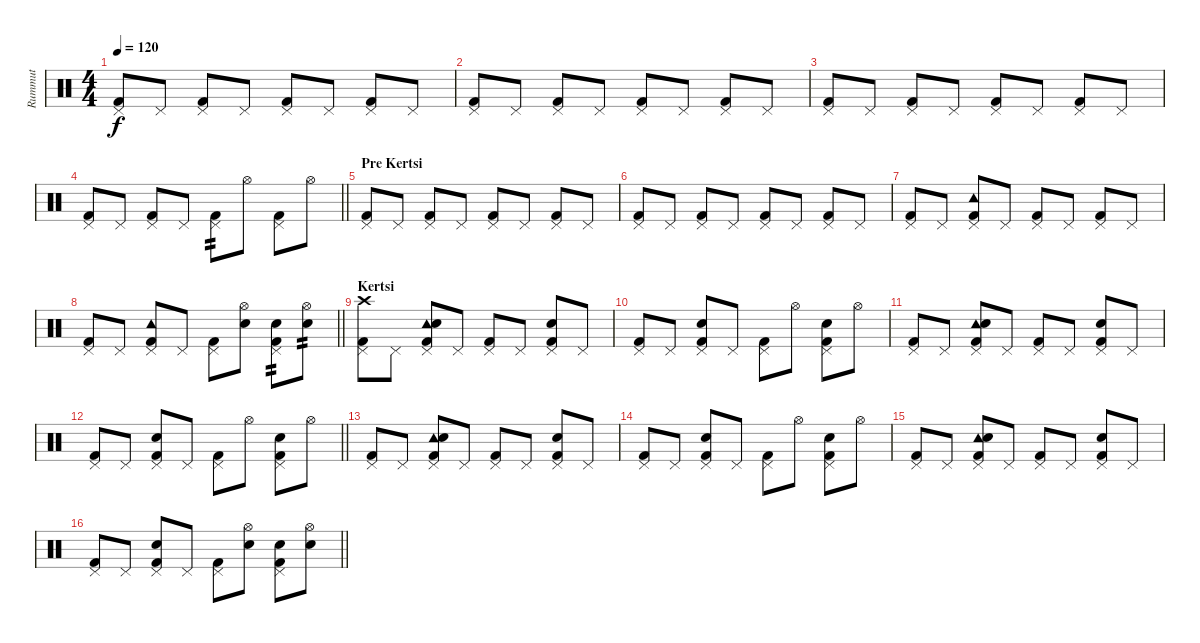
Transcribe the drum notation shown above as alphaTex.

\track ("Rummut" "Rummut") {instrument percussion}
\staff {score}
\articulation defaults
\ts (4 4)
\tempo 120
\clef neutral
\ks c
("Pedal Hi-Hat (hit)" "Kick (hit) 2").8{dy f} "Pedal Hi-Hat (hit)".8 ("Pedal Hi-Hat (hit)" "Kick (hit) 2").8 "Pedal Hi-Hat (hit)".8 ("Pedal Hi-Hat (hit)" "Kick (hit) 2").8 "Pedal Hi-Hat (hit)".8 ("Pedal Hi-Hat (hit)" "Kick (hit) 2").8 "Pedal Hi-Hat (hit)".8 |
("Pedal Hi-Hat (hit)" "Kick (hit) 2").8 "Pedal Hi-Hat (hit)".8 ("Pedal Hi-Hat (hit)" "Kick (hit) 2").8 "Pedal Hi-Hat (hit)".8 ("Pedal Hi-Hat (hit)" "Kick (hit) 2").8 "Pedal Hi-Hat (hit)".8 ("Pedal Hi-Hat (hit)" "Kick (hit) 2").8 "Pedal Hi-Hat (hit)".8 |
("Pedal Hi-Hat (hit)" "Kick (hit) 2").8 "Pedal Hi-Hat (hit)".8 ("Pedal Hi-Hat (hit)" "Kick (hit) 2").8 "Pedal Hi-Hat (hit)".8 ("Pedal Hi-Hat (hit)" "Kick (hit) 2").8 "Pedal Hi-Hat (hit)".8 ("Pedal Hi-Hat (hit)" "Kick (hit) 2").8 "Pedal Hi-Hat (hit)".8 |
\barLineRight lightlight
("Pedal Hi-Hat (hit)" "Kick (hit) 2").8 "Pedal Hi-Hat (hit)".8 ("Pedal Hi-Hat (hit)" "Kick (hit) 2").8 "Pedal Hi-Hat (hit)".8 ("Pedal Hi-Hat (hit)" "Kick (hit) 2").8{tp 2} "Hi-Hat (open)".8 ("Pedal Hi-Hat (hit)" "Kick (hit) 2").8 "Hi-Hat (open)".8 |
\section ("" "Pre Kertsi")
("Pedal Hi-Hat (hit)" "Kick (hit) 2").8 "Pedal Hi-Hat (hit)".8 ("Pedal Hi-Hat (hit)" "Kick (hit) 2").8 "Pedal Hi-Hat (hit)".8 ("Pedal Hi-Hat (hit)" "Kick (hit) 2").8 "Pedal Hi-Hat (hit)".8 ("Pedal Hi-Hat (hit)" "Kick (hit) 2").8 "Pedal Hi-Hat (hit)".8 |
("Pedal Hi-Hat (hit)" "Kick (hit) 2").8 "Pedal Hi-Hat (hit)".8 ("Pedal Hi-Hat (hit)" "Kick (hit) 2").8 "Pedal Hi-Hat (hit)".8 ("Pedal Hi-Hat (hit)" "Kick (hit) 2").8 "Pedal Hi-Hat (hit)".8 ("Pedal Hi-Hat (hit)" "Kick (hit) 2").8 "Pedal Hi-Hat (hit)".8 |
("Pedal Hi-Hat (hit)" "Kick (hit) 2").8 "Pedal Hi-Hat (hit)".8 ("Tambourine (hit)" "Pedal Hi-Hat (hit)" "Kick (hit) 2").8 "Pedal Hi-Hat (hit)".8 ("Pedal Hi-Hat (hit)" "Kick (hit) 2").8 "Pedal Hi-Hat (hit)".8 ("Pedal Hi-Hat (hit)" "Kick (hit) 2").8 "Pedal Hi-Hat (hit)".8 |
\barLineRight lightlight
("Pedal Hi-Hat (hit)" "Kick (hit) 2").8 "Pedal Hi-Hat (hit)".8 ("Tambourine (hit)" "Pedal Hi-Hat (hit)" "Kick (hit) 2").8 "Pedal Hi-Hat (hit)".8 ("Pedal Hi-Hat (hit)" "Kick (hit) 2").8 ("Hi-Hat (open)" "Snare (hit) 2").8 ("Pedal Hi-Hat (hit)" "Snare (hit) 2" "Kick (hit) 2").8{tp 2} ("Hi-Hat (open)" "Snare (hit) 2").8{tp 2} |
\section ("" "Kertsi")
("Crash high (hit)" "Pedal Hi-Hat (hit)" "Kick (hit) 2").8 "Pedal Hi-Hat (hit)".8 ("Tambourine (hit)" "Pedal Hi-Hat (hit)" "Snare (hit) 2" "Kick (hit) 2").8 "Pedal Hi-Hat (hit)".8 ("Pedal Hi-Hat (hit)" "Kick (hit) 2").8 "Pedal Hi-Hat (hit)".8 ("Pedal Hi-Hat (hit)" "Snare (hit) 2" "Kick (hit) 2").8 "Pedal Hi-Hat (hit)".8 |
("Pedal Hi-Hat (hit)" "Kick (hit) 2").8 "Pedal Hi-Hat (hit)".8 ("Pedal Hi-Hat (hit)" "Snare (hit) 2" "Kick (hit) 2").8 "Pedal Hi-Hat (hit)".8 ("Pedal Hi-Hat (hit)" "Kick (hit) 2").8 "Hi-Hat (open)".8 ("Pedal Hi-Hat (hit)" "Snare (hit) 2" "Kick (hit) 2").8 "Hi-Hat (open)".8 |
("Pedal Hi-Hat (hit)" "Kick (hit) 2").8 "Pedal Hi-Hat (hit)".8 ("Tambourine (hit)" "Pedal Hi-Hat (hit)" "Snare (hit) 2" "Kick (hit) 2").8 "Pedal Hi-Hat (hit)".8 ("Pedal Hi-Hat (hit)" "Kick (hit) 2").8 "Pedal Hi-Hat (hit)".8 ("Pedal Hi-Hat (hit)" "Snare (hit) 2" "Kick (hit) 2").8 "Pedal Hi-Hat (hit)".8 |
\barLineRight lightlight
("Pedal Hi-Hat (hit)" "Kick (hit) 2").8 "Pedal Hi-Hat (hit)".8 ("Pedal Hi-Hat (hit)" "Snare (hit) 2" "Kick (hit) 2").8 "Pedal Hi-Hat (hit)".8 ("Pedal Hi-Hat (hit)" "Kick (hit) 2").8 "Hi-Hat (open)".8 ("Pedal Hi-Hat (hit)" "Snare (hit) 2" "Kick (hit) 2").8 "Hi-Hat (open)".8 |
("Pedal Hi-Hat (hit)" "Kick (hit) 2").8 "Pedal Hi-Hat (hit)".8 ("Tambourine (hit)" "Pedal Hi-Hat (hit)" "Snare (hit) 2" "Kick (hit) 2").8 "Pedal Hi-Hat (hit)".8 ("Pedal Hi-Hat (hit)" "Kick (hit) 2").8 "Pedal Hi-Hat (hit)".8 ("Pedal Hi-Hat (hit)" "Snare (hit) 2" "Kick (hit) 2").8 "Pedal Hi-Hat (hit)".8 |
("Pedal Hi-Hat (hit)" "Kick (hit) 2").8 "Pedal Hi-Hat (hit)".8 ("Pedal Hi-Hat (hit)" "Snare (hit) 2" "Kick (hit) 2").8 "Pedal Hi-Hat (hit)".8 ("Pedal Hi-Hat (hit)" "Kick (hit) 2").8 "Hi-Hat (open)".8 ("Pedal Hi-Hat (hit)" "Snare (hit) 2" "Kick (hit) 2").8 "Hi-Hat (open)".8 |
("Pedal Hi-Hat (hit)" "Kick (hit) 2").8 "Pedal Hi-Hat (hit)".8 ("Tambourine (hit)" "Pedal Hi-Hat (hit)" "Snare (hit) 2" "Kick (hit) 2").8 "Pedal Hi-Hat (hit)".8 ("Pedal Hi-Hat (hit)" "Kick (hit) 2").8 "Pedal Hi-Hat (hit)".8 ("Pedal Hi-Hat (hit)" "Snare (hit) 2" "Kick (hit) 2").8 "Pedal Hi-Hat (hit)".8 |
\barLineRight lightlight
("Pedal Hi-Hat (hit)" "Kick (hit) 2").8 "Pedal Hi-Hat (hit)".8 ("Pedal Hi-Hat (hit)" "Snare (hit) 2" "Kick (hit) 2").8 "Pedal Hi-Hat (hit)".8 ("Pedal Hi-Hat (hit)" "Kick (hit) 2").8 ("Hi-Hat (open)" "Snare (hit) 2").8 ("Pedal Hi-Hat (hit)" "Snare (hit) 2" "Kick (hit) 2").8 ("Hi-Hat (open)" "Snare (hit) 2").8
